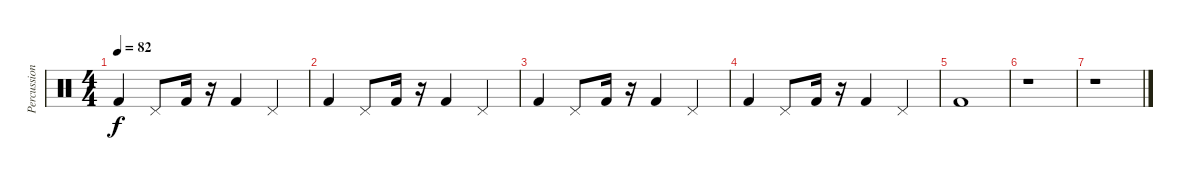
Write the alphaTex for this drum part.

\track ("Percussions" "Percussion") {instrument percussion}
\staff {score}
\articulation defaults
\ts (4 4)
\tempo 82
\clef neutral
\ks c "Kick (hit) 2".4{dy f} "Pedal Hi-Hat (hit)".8 "Kick (hit) 2".16
r.16 "Kick (hit) 2".4 "Pedal Hi-Hat (hit)".4 |
"Kick (hit) 2".4 "Pedal Hi-Hat (hit)".8 "Kick (hit) 2".16 r.16 "Kick (hit) 2".4 "Pedal Hi-Hat (hit)".4 |
"Kick (hit) 2".4 "Pedal Hi-Hat (hit)".8 "Kick (hit) 2".16 r.16 "Kick (hit) 2".4 "Pedal Hi-Hat (hit)".4 |
"Kick (hit) 2".4 "Pedal Hi-Hat (hit)".8 "Kick (hit) 2".16 r.16 "Kick (hit) 2".4 "Pedal Hi-Hat (hit)".4 |
"Kick (hit) 2".1 |
r.1 |
r.1
